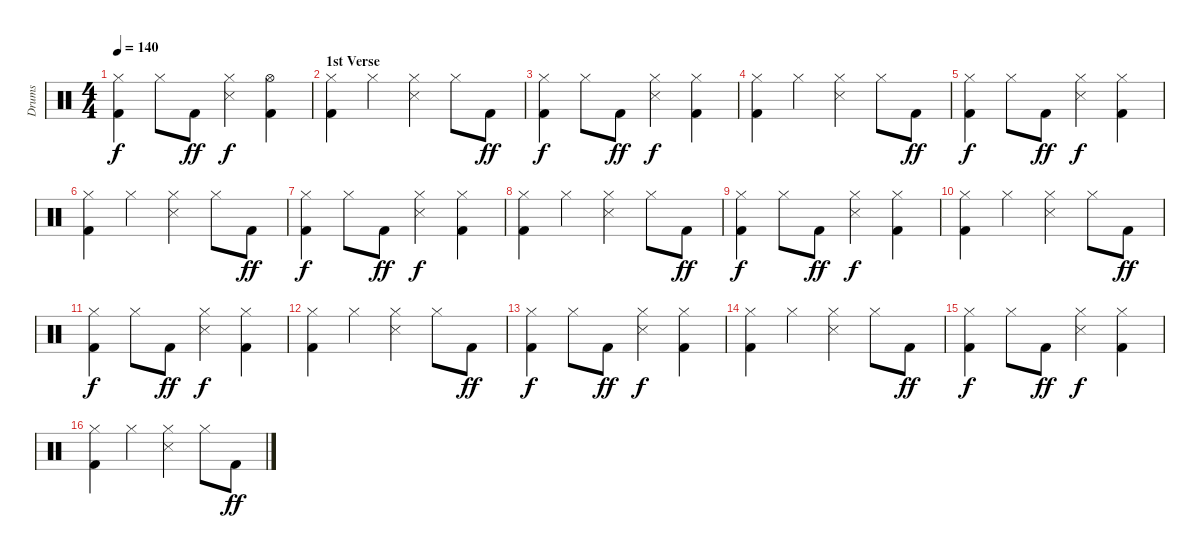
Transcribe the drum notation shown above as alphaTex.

\track ("Drums" "Drums") {instrument percussion}
\staff {score}
\articulation defaults
\ts (4 4)
\tempo 140
\clef neutral
\ks c
("Kick (hit) 2" "Hi-Hat (closed)").4{dy f} "Hi-Hat (closed)".8 "Kick (hit) 2".8{dy ff} ("Snare (side stick) 3" "Hi-Hat (closed)").4{dy f} ("Kick (hit) 2" "Hi-Hat (open)").4 |
\section ("" "1st Verse")
("Kick (hit) 2" "Hi-Hat (closed)").4 "Hi-Hat (closed)".4 ("Snare (side stick) 3" "Hi-Hat (closed)").4 "Hi-Hat (closed)".8 "Kick (hit) 2".8{dy ff} |
("Kick (hit) 2" "Hi-Hat (closed)").4{dy f} "Hi-Hat (closed)".8 "Kick (hit) 2".8{dy ff} ("Snare (side stick) 3" "Hi-Hat (closed)").4{dy f} ("Kick (hit) 2" "Hi-Hat (closed)").4 |
("Kick (hit) 2" "Hi-Hat (closed)").4 "Hi-Hat (closed)".4 ("Snare (side stick) 3" "Hi-Hat (closed)").4 "Hi-Hat (closed)".8 "Kick (hit) 2".8{dy ff} |
("Kick (hit) 2" "Hi-Hat (closed)").4{dy f} "Hi-Hat (closed)".8 "Kick (hit) 2".8{dy ff} ("Snare (side stick) 3" "Hi-Hat (closed)").4{dy f} ("Kick (hit) 2" "Hi-Hat (closed)").4 |
("Kick (hit) 2" "Hi-Hat (closed)").4 "Hi-Hat (closed)".4 ("Snare (side stick) 3" "Hi-Hat (closed)").4 "Hi-Hat (closed)".8 "Kick (hit) 2".8{dy ff} |
("Kick (hit) 2" "Hi-Hat (closed)").4{dy f} "Hi-Hat (closed)".8 "Kick (hit) 2".8{dy ff} ("Snare (side stick) 3" "Hi-Hat (closed)").4{dy f} ("Kick (hit) 2" "Hi-Hat (closed)").4 |
("Kick (hit) 2" "Hi-Hat (closed)").4 "Hi-Hat (closed)".4 ("Snare (side stick) 3" "Hi-Hat (closed)").4 "Hi-Hat (closed)".8 "Kick (hit) 2".8{dy ff} |
("Kick (hit) 2" "Hi-Hat (closed)").4{dy f} "Hi-Hat (closed)".8 "Kick (hit) 2".8{dy ff} ("Snare (side stick) 3" "Hi-Hat (closed)").4{dy f} ("Kick (hit) 2" "Hi-Hat (closed)").4 |
("Kick (hit) 2" "Hi-Hat (closed)").4 "Hi-Hat (closed)".4 ("Snare (side stick) 3" "Hi-Hat (closed)").4 "Hi-Hat (closed)".8 "Kick (hit) 2".8{dy ff} |
("Kick (hit) 2" "Hi-Hat (closed)").4{dy f} "Hi-Hat (closed)".8 "Kick (hit) 2".8{dy ff} ("Snare (side stick) 3" "Hi-Hat (closed)").4{dy f} ("Kick (hit) 2" "Hi-Hat (closed)").4 |
("Kick (hit) 2" "Hi-Hat (closed)").4 "Hi-Hat (closed)".4 ("Snare (side stick) 3" "Hi-Hat (closed)").4 "Hi-Hat (closed)".8 "Kick (hit) 2".8{dy ff} |
("Kick (hit) 2" "Hi-Hat (closed)").4{dy f} "Hi-Hat (closed)".8 "Kick (hit) 2".8{dy ff} ("Snare (side stick) 3" "Hi-Hat (closed)").4{dy f} ("Kick (hit) 2" "Hi-Hat (closed)").4 |
("Kick (hit) 2" "Hi-Hat (closed)").4 "Hi-Hat (closed)".4 ("Snare (side stick) 3" "Hi-Hat (closed)").4 "Hi-Hat (closed)".8 "Kick (hit) 2".8{dy ff} |
("Kick (hit) 2" "Hi-Hat (closed)").4{dy f} "Hi-Hat (closed)".8 "Kick (hit) 2".8{dy ff} ("Snare (side stick) 3" "Hi-Hat (closed)").4{dy f} ("Kick (hit) 2" "Hi-Hat (closed)").4 |
("Kick (hit) 2" "Hi-Hat (closed)").4 "Hi-Hat (closed)".4 ("Snare (side stick) 3" "Hi-Hat (closed)").4 "Hi-Hat (closed)".8 "Kick (hit) 2".8{dy ff}
